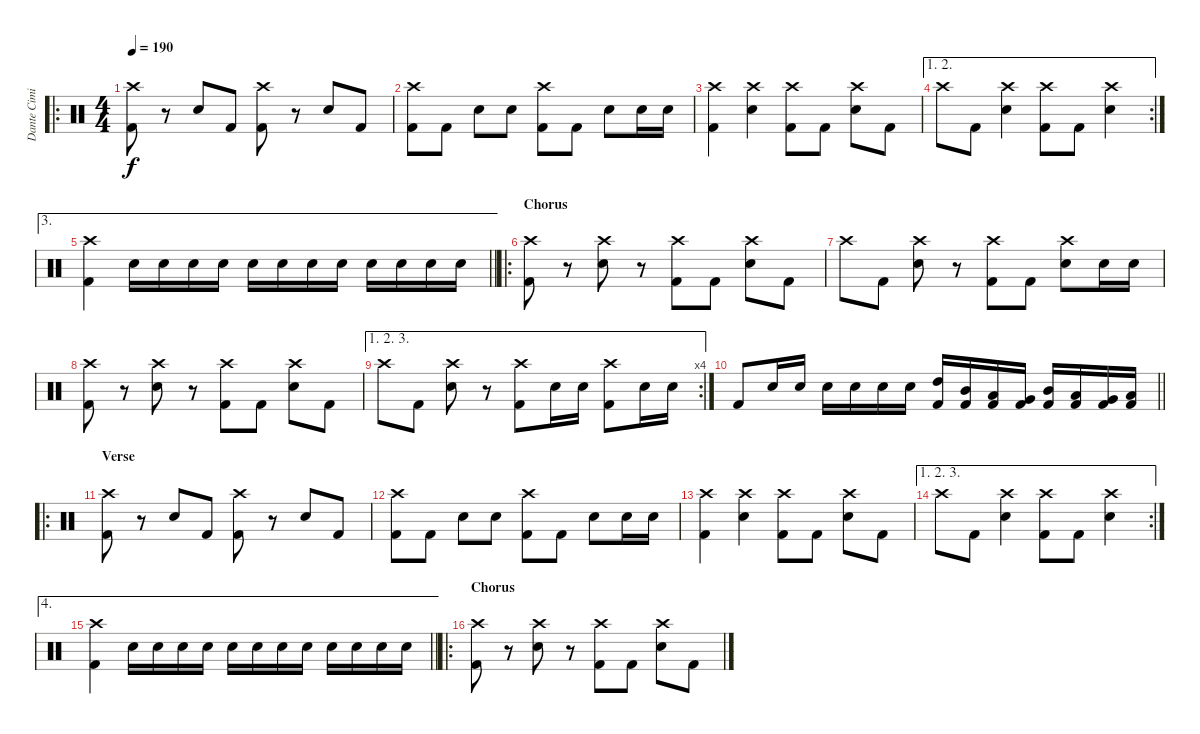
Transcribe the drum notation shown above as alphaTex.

\track ("Dante Cimino" "Dante Cimi") {instrument percussion}
\staff {score}
\articulation defaults
\ro
\ts (4 4)
\tempo 190
\clef neutral
\ks c
("Crash high (hit)" "Kick (hit) 2").8{dy f} r.8 "Electric Snare (hit)".8 "Kick (hit) 2".8 ("Crash high (hit)" "Kick (hit) 2").8 r.8 "Electric Snare (hit)".8 "Kick (hit) 2".8 |
("Crash high (hit)" "Kick (hit) 2").8 "Kick (hit) 2".8 "Electric Snare (hit)".8 "Electric Snare (hit)".8 ("Crash high (hit)" "Kick (hit) 2").8 "Kick (hit) 2".8 "Electric Snare (hit)".8 "Electric Snare (hit)".16 "Electric Snare (hit)".16 |
("Crash high (hit)" "Kick (hit) 2").4 ("Crash high (hit)" "Electric Snare (hit)").4 ("Crash high (hit)" "Kick (hit) 2").8 "Kick (hit) 2".8 ("Crash high (hit)" "Electric Snare (hit)").8 "Kick (hit) 2".8 |
\ae (1 2)
\rc 2 "Crash high (hit)".8 "Kick (hit) 2".8
("Crash high (hit)" "Electric Snare (hit)").4 ("Crash high (hit)" "Kick (hit) 2").8 "Kick (hit) 2".8 ("Crash high (hit)" "Electric Snare (hit)").4 |
\ae 3
\barLineRight lightlight
("Crash high (hit)" "Kick (hit) 2").4 "Electric Snare (hit)".16 "Electric Snare (hit)".16 "Electric Snare (hit)".16 "Electric Snare (hit)".16 "Electric Snare (hit)".16 "Electric Snare (hit)".16 "Electric Snare (hit)".16 "Electric Snare (hit)".16 "Electric Snare (hit)".16 "Electric Snare (hit)".16 "Electric Snare (hit)".16 "Electric Snare (hit)".16 |
\ro
\section ("" "Chorus")
("Crash high (hit)" "Kick (hit) 2").8 r.8 ("Crash high (hit)" "Electric Snare (hit)").8 r.8 ("Crash high (hit)" "Kick (hit) 2").8 "Kick (hit) 2".8 ("Crash high (hit)" "Electric Snare (hit)").8 "Kick (hit) 2".8 |
"Crash high (hit)".8 "Kick (hit) 2".8 ("Crash high (hit)" "Electric Snare (hit)").8 r.8 ("Crash high (hit)" "Kick (hit) 2").8 "Kick (hit) 2".8 ("Crash high (hit)" "Electric Snare (hit)").8 "Electric Snare (hit)".16 "Electric Snare (hit)".16 |
("Crash high (hit)" "Kick (hit) 2").8 r.8 ("Crash high (hit)" "Electric Snare (hit)").8 r.8 ("Crash high (hit)" "Kick (hit) 2").8 "Kick (hit) 2".8 ("Crash high (hit)" "Electric Snare (hit)").8 "Kick (hit) 2".8 |
\ae (1 2 3)
\rc 4 "Crash high (hit)".8 "Kick (hit) 2".8
("Crash high (hit)" "Electric Snare (hit)").8 r.8 ("Crash high (hit)" "Kick (hit) 2").8 "Electric Snare (hit)".16 "Electric Snare (hit)".16 ("Crash high (hit)" "Kick (hit) 2").8 "Electric Snare (hit)".16 "Electric Snare (hit)".16 |
\barLineRight lightlight "Kick (hit) 2".8 "Electric Snare (hit)".16 "Electric Snare (hit)".16 "Electric Snare (hit)".16 "Electric Snare (hit)".16 "Electric Snare (hit)".16 "Electric Snare (hit)".16
("High Tom (hit)" "Kick (hit) 2").16 ("Mid Tom (hit)" "Kick (hit) 2").16 ("Low Tom (hit)" "Kick (hit) 2").16 ("Very Low Tom (hit)" "Kick (hit) 2").16 ("Mid Tom (hit)" "Kick (hit) 2").16 ("Low Tom (hit)" "Kick (hit) 2").16 ("Very Low Tom (hit)" "Kick (hit) 2").16 ("Low Floor Tom (hit)" "Kick (hit) 2").16 |
\ro
\section ("" "Verse")
("Crash high (hit)" "Kick (hit) 2").8 r.8 "Electric Snare (hit)".8 "Kick (hit) 2".8 ("Crash high (hit)" "Kick (hit) 2").8 r.8 "Electric Snare (hit)".8 "Kick (hit) 2".8 |
("Crash high (hit)" "Kick (hit) 2").8 "Kick (hit) 2".8 "Electric Snare (hit)".8 "Electric Snare (hit)".8 ("Crash high (hit)" "Kick (hit) 2").8 "Kick (hit) 2".8 "Electric Snare (hit)".8 "Electric Snare (hit)".16 "Electric Snare (hit)".16 |
("Crash high (hit)" "Kick (hit) 2").4 ("Crash high (hit)" "Electric Snare (hit)").4 ("Crash high (hit)" "Kick (hit) 2").8 "Kick (hit) 2".8 ("Crash high (hit)" "Electric Snare (hit)").8 "Kick (hit) 2".8 |
\ae (1 2 3)
\rc 2 "Crash high (hit)".8 "Kick (hit) 2".8
("Crash high (hit)" "Electric Snare (hit)").4 ("Crash high (hit)" "Kick (hit) 2").8 "Kick (hit) 2".8 ("Crash high (hit)" "Electric Snare (hit)").4 |
\ae 4
\barLineRight lightlight
("Crash high (hit)" "Kick (hit) 2").4 "Electric Snare (hit)".16 "Electric Snare (hit)".16 "Electric Snare (hit)".16 "Electric Snare (hit)".16 "Electric Snare (hit)".16 "Electric Snare (hit)".16 "Electric Snare (hit)".16 "Electric Snare (hit)".16 "Electric Snare (hit)".16 "Electric Snare (hit)".16 "Electric Snare (hit)".16 "Electric Snare (hit)".16 |
\ro
\section ("" "Chorus")
("Crash high (hit)" "Kick (hit) 2").8 r.8 ("Crash high (hit)" "Electric Snare (hit)").8 r.8 ("Crash high (hit)" "Kick (hit) 2").8 "Kick (hit) 2".8 ("Crash high (hit)" "Electric Snare (hit)").8 "Kick (hit) 2".8
